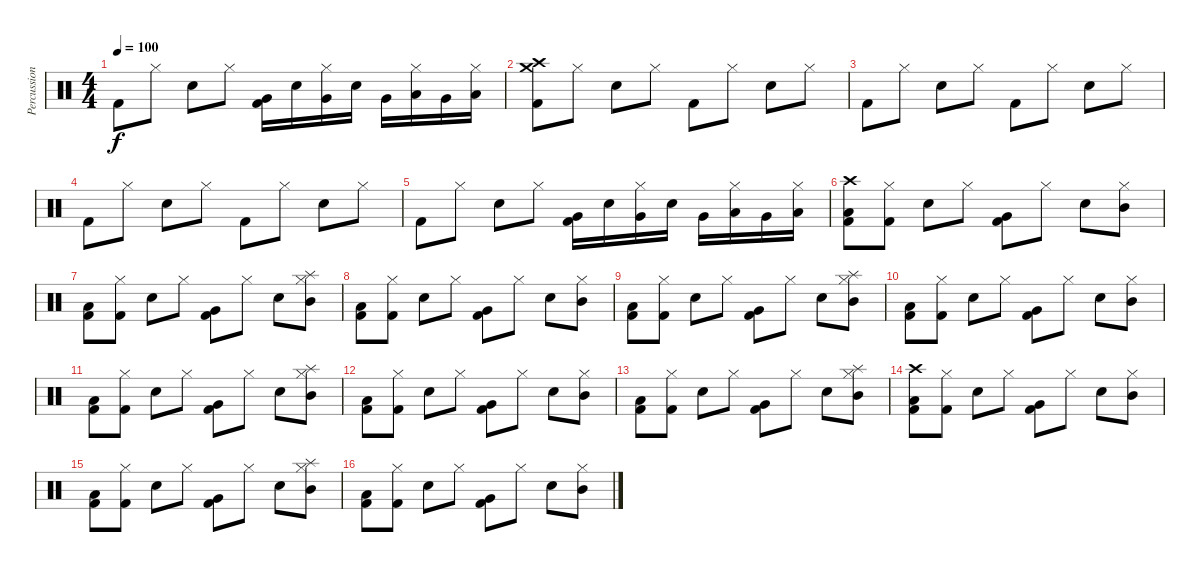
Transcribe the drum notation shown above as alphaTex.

\track ("Percussion" "Percussion") {instrument percussion}
\staff {score}
\articulation defaults
\ts (4 4)
\tempo 100
\clef neutral
\ks c "Kick (hit) 2".8{dy f} "Hi-Hat (closed)".8 "Electric Snare (hit)".8 "Hi-Hat (closed)".8
("Kick (hit) 2" "Very Low Tom (hit)").16 "Electric Snare (hit)".16 ("Hi-Hat (closed)" "Very Low Tom (hit)").16 "Electric Snare (hit)".16 "Very Low Tom (hit)".16 ("Hi-Hat (closed)" "Low Floor Tom (hit)").16 "Very Low Tom (hit)".16 ("Hi-Hat (closed)" "Low Floor Tom (hit)").16 |
("Kick (hit) 2" "Crash high (hit)" "Crash medium (hit)").8 "Hi-Hat (closed)".8 "Electric Snare (hit)".8 "Hi-Hat (closed)".8 "Kick (hit) 2".8 "Hi-Hat (closed)".8 "Electric Snare (hit)".8 "Hi-Hat (closed)".8 |
"Kick (hit) 2".8 "Hi-Hat (closed)".8 "Electric Snare (hit)".8 "Hi-Hat (closed)".8 "Kick (hit) 2".8 "Hi-Hat (closed)".8 "Electric Snare (hit)".8 "Hi-Hat (closed)".8 |
"Kick (hit) 2".8 "Hi-Hat (closed)".8 "Electric Snare (hit)".8 "Hi-Hat (closed)".8 "Kick (hit) 2".8 "Hi-Hat (closed)".8 "Electric Snare (hit)".8 "Hi-Hat (closed)".8 |
"Kick (hit) 2".8 "Hi-Hat (closed)".8 "Electric Snare (hit)".8 "Hi-Hat (closed)".8 ("Kick (hit) 2" "Very Low Tom (hit)").16 "Electric Snare (hit)".16 ("Hi-Hat (closed)" "Very Low Tom (hit)").16 "Electric Snare (hit)".16 "Very Low Tom (hit)".16 ("Hi-Hat (closed)" "Low Floor Tom (hit)").16 "Very Low Tom (hit)".16 ("Hi-Hat (closed)" "Low Floor Tom (hit)").16 |
("Kick (hit) 2" "Low Tom (hit)" "Crash high (hit)").8 ("Kick (hit) 2" "Hi-Hat (closed)").8 "Electric Snare (hit)".8 "Hi-Hat (closed)".8 ("Kick (hit) 2" "Very Low Tom (hit)").8 "Hi-Hat (closed)".8 "Electric Snare (hit)".8 ("Mid Tom (hit)" "Hi-Hat (closed)").8 |
("Kick (hit) 2" "Low Tom (hit)").8 ("Kick (hit) 2" "Hi-Hat (closed)").8 "Electric Snare (hit)".8 "Hi-Hat (closed)".8 ("Kick (hit) 2" "Very Low Tom (hit)").8 "Hi-Hat (closed)".8 "Electric Snare (hit)".8 ("Mid Tom (hit)" "Hi-Hat (closed)" "Splash (hit)").8 |
("Kick (hit) 2" "Low Tom (hit)").8 ("Kick (hit) 2" "Hi-Hat (closed)").8 "Electric Snare (hit)".8 "Hi-Hat (closed)".8 ("Kick (hit) 2" "Very Low Tom (hit)").8 "Hi-Hat (closed)".8 "Electric Snare (hit)".8 ("Mid Tom (hit)" "Hi-Hat (closed)").8 |
("Kick (hit) 2" "Low Tom (hit)").8 ("Kick (hit) 2" "Hi-Hat (closed)").8 "Electric Snare (hit)".8 "Hi-Hat (closed)".8 ("Kick (hit) 2" "Very Low Tom (hit)").8 "Hi-Hat (closed)".8 "Electric Snare (hit)".8 ("Mid Tom (hit)" "Hi-Hat (closed)" "Splash (hit)").8 |
("Kick (hit) 2" "Low Tom (hit)").8 ("Kick (hit) 2" "Hi-Hat (closed)").8 "Electric Snare (hit)".8 "Hi-Hat (closed)".8 ("Kick (hit) 2" "Very Low Tom (hit)").8 "Hi-Hat (closed)".8 "Electric Snare (hit)".8 ("Mid Tom (hit)" "Hi-Hat (closed)").8 |
("Kick (hit) 2" "Low Tom (hit)").8 ("Kick (hit) 2" "Hi-Hat (closed)").8 "Electric Snare (hit)".8 "Hi-Hat (closed)".8 ("Kick (hit) 2" "Very Low Tom (hit)").8 "Hi-Hat (closed)".8 "Electric Snare (hit)".8 ("Mid Tom (hit)" "Hi-Hat (closed)" "Splash (hit)").8 |
("Kick (hit) 2" "Low Tom (hit)").8 ("Kick (hit) 2" "Hi-Hat (closed)").8 "Electric Snare (hit)".8 "Hi-Hat (closed)".8 ("Kick (hit) 2" "Very Low Tom (hit)").8 "Hi-Hat (closed)".8 "Electric Snare (hit)".8 ("Mid Tom (hit)" "Hi-Hat (closed)").8 |
("Kick (hit) 2" "Low Tom (hit)").8 ("Kick (hit) 2" "Hi-Hat (closed)").8 "Electric Snare (hit)".8 "Hi-Hat (closed)".8 ("Kick (hit) 2" "Very Low Tom (hit)").8 "Hi-Hat (closed)".8 "Electric Snare (hit)".8 ("Mid Tom (hit)" "Hi-Hat (closed)" "Splash (hit)").8 |
("Kick (hit) 2" "Low Tom (hit)" "Crash high (hit)").8 ("Kick (hit) 2" "Hi-Hat (closed)").8 "Electric Snare (hit)".8 "Hi-Hat (closed)".8 ("Kick (hit) 2" "Very Low Tom (hit)").8 "Hi-Hat (closed)".8 "Electric Snare (hit)".8 ("Mid Tom (hit)" "Hi-Hat (closed)").8 |
("Kick (hit) 2" "Low Tom (hit)").8 ("Kick (hit) 2" "Hi-Hat (closed)").8 "Electric Snare (hit)".8 "Hi-Hat (closed)".8 ("Kick (hit) 2" "Very Low Tom (hit)").8 "Hi-Hat (closed)".8 "Electric Snare (hit)".8 ("Mid Tom (hit)" "Hi-Hat (closed)" "Splash (hit)").8 |
("Kick (hit) 2" "Low Tom (hit)").8 ("Kick (hit) 2" "Hi-Hat (closed)").8 "Electric Snare (hit)".8 "Hi-Hat (closed)".8 ("Kick (hit) 2" "Very Low Tom (hit)").8 "Hi-Hat (closed)".8 "Electric Snare (hit)".8 ("Mid Tom (hit)" "Hi-Hat (closed)").8
